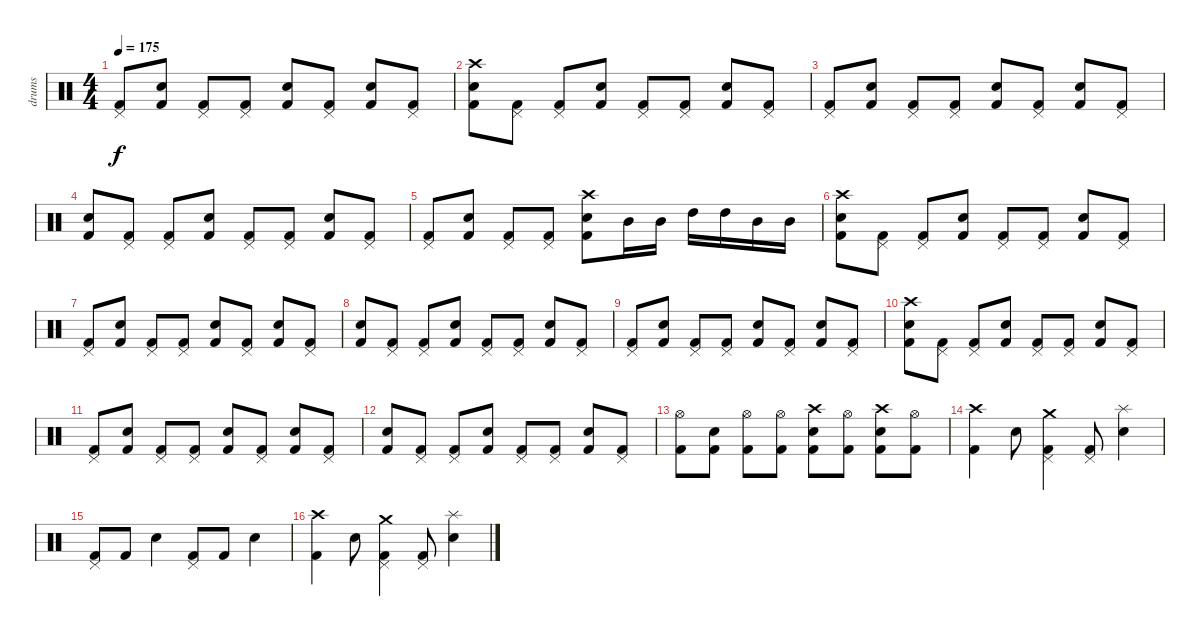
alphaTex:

\track ("drums" "drums") {instrument percussion}
\staff {score}
\articulation defaults
\ts (4 4)
\tempo 175
\clef neutral
\ks c
("Pedal Hi-Hat (hit)" "Kick (hit) 2").8{dy f} ("Electric Snare (hit)" "Kick (hit) 2").8 ("Pedal Hi-Hat (hit)" "Kick (hit) 2").8 ("Pedal Hi-Hat (hit)" "Kick (hit) 2").8 ("Electric Snare (hit)" "Kick (hit) 2").8 ("Pedal Hi-Hat (hit)" "Kick (hit) 2").8 ("Electric Snare (hit)" "Kick (hit) 2").8 ("Pedal Hi-Hat (hit)" "Kick (hit) 2").8 |
("Crash high (hit)" "Electric Snare (hit)" "Kick (hit) 2").8 ("Pedal Hi-Hat (hit)" "Kick (hit) 2").8 ("Pedal Hi-Hat (hit)" "Kick (hit) 2").8 ("Electric Snare (hit)" "Kick (hit) 2").8 ("Pedal Hi-Hat (hit)" "Kick (hit) 2").8 ("Pedal Hi-Hat (hit)" "Kick (hit) 2").8 ("Electric Snare (hit)" "Kick (hit) 2").8 ("Pedal Hi-Hat (hit)" "Kick (hit) 2").8 |
("Pedal Hi-Hat (hit)" "Kick (hit) 2").8 ("Electric Snare (hit)" "Kick (hit) 2").8 ("Pedal Hi-Hat (hit)" "Kick (hit) 2").8 ("Pedal Hi-Hat (hit)" "Kick (hit) 2").8 ("Electric Snare (hit)" "Kick (hit) 2").8 ("Pedal Hi-Hat (hit)" "Kick (hit) 2").8 ("Electric Snare (hit)" "Kick (hit) 2").8 ("Pedal Hi-Hat (hit)" "Kick (hit) 2").8 |
("Electric Snare (hit)" "Kick (hit) 2").8 ("Pedal Hi-Hat (hit)" "Kick (hit) 2").8 ("Pedal Hi-Hat (hit)" "Kick (hit) 2").8 ("Electric Snare (hit)" "Kick (hit) 2").8 ("Pedal Hi-Hat (hit)" "Kick (hit) 2").8 ("Pedal Hi-Hat (hit)" "Kick (hit) 2").8 ("Electric Snare (hit)" "Kick (hit) 2").8 ("Pedal Hi-Hat (hit)" "Kick (hit) 2").8 |
("Pedal Hi-Hat (hit)" "Kick (hit) 2").8 ("Electric Snare (hit)" "Kick (hit) 2").8 ("Pedal Hi-Hat (hit)" "Kick (hit) 2").8 ("Pedal Hi-Hat (hit)" "Kick (hit) 2").8 ("Crash high (hit)" "Electric Snare (hit)" "Kick (hit) 2").8 "Mid Tom (hit)".16 "Mid Tom (hit)".16 "High Tom (hit)".16 "High Tom (hit)".16 "Mid Tom (hit)".16 "Mid Tom (hit)".16 |
("Crash high (hit)" "Electric Snare (hit)" "Kick (hit) 2").8 ("Pedal Hi-Hat (hit)" "Kick (hit) 2").8 ("Pedal Hi-Hat (hit)" "Kick (hit) 2").8 ("Electric Snare (hit)" "Kick (hit) 2").8 ("Pedal Hi-Hat (hit)" "Kick (hit) 2").8 ("Pedal Hi-Hat (hit)" "Kick (hit) 2").8 ("Electric Snare (hit)" "Kick (hit) 2").8 ("Pedal Hi-Hat (hit)" "Kick (hit) 2").8 |
("Pedal Hi-Hat (hit)" "Kick (hit) 2").8 ("Electric Snare (hit)" "Kick (hit) 2").8 ("Pedal Hi-Hat (hit)" "Kick (hit) 2").8 ("Pedal Hi-Hat (hit)" "Kick (hit) 2").8 ("Electric Snare (hit)" "Kick (hit) 2").8 ("Pedal Hi-Hat (hit)" "Kick (hit) 2").8 ("Electric Snare (hit)" "Kick (hit) 2").8 ("Pedal Hi-Hat (hit)" "Kick (hit) 2").8 |
("Electric Snare (hit)" "Kick (hit) 2").8 ("Pedal Hi-Hat (hit)" "Kick (hit) 2").8 ("Pedal Hi-Hat (hit)" "Kick (hit) 2").8 ("Electric Snare (hit)" "Kick (hit) 2").8 ("Pedal Hi-Hat (hit)" "Kick (hit) 2").8 ("Pedal Hi-Hat (hit)" "Kick (hit) 2").8 ("Electric Snare (hit)" "Kick (hit) 2").8 ("Pedal Hi-Hat (hit)" "Kick (hit) 2").8 |
("Pedal Hi-Hat (hit)" "Kick (hit) 2").8 ("Electric Snare (hit)" "Kick (hit) 2").8 ("Pedal Hi-Hat (hit)" "Kick (hit) 2").8 ("Pedal Hi-Hat (hit)" "Kick (hit) 2").8 ("Electric Snare (hit)" "Kick (hit) 2").8 ("Pedal Hi-Hat (hit)" "Kick (hit) 2").8 ("Electric Snare (hit)" "Kick (hit) 2").8 ("Pedal Hi-Hat (hit)" "Kick (hit) 2").8 |
("Crash high (hit)" "Electric Snare (hit)" "Kick (hit) 2").8 ("Pedal Hi-Hat (hit)" "Kick (hit) 2").8 ("Pedal Hi-Hat (hit)" "Kick (hit) 2").8 ("Electric Snare (hit)" "Kick (hit) 2").8 ("Pedal Hi-Hat (hit)" "Kick (hit) 2").8 ("Pedal Hi-Hat (hit)" "Kick (hit) 2").8 ("Electric Snare (hit)" "Kick (hit) 2").8 ("Pedal Hi-Hat (hit)" "Kick (hit) 2").8 |
("Pedal Hi-Hat (hit)" "Kick (hit) 2").8 ("Electric Snare (hit)" "Kick (hit) 2").8 ("Pedal Hi-Hat (hit)" "Kick (hit) 2").8 ("Pedal Hi-Hat (hit)" "Kick (hit) 2").8 ("Electric Snare (hit)" "Kick (hit) 2").8 ("Pedal Hi-Hat (hit)" "Kick (hit) 2").8 ("Electric Snare (hit)" "Kick (hit) 2").8 ("Pedal Hi-Hat (hit)" "Kick (hit) 2").8 |
("Electric Snare (hit)" "Kick (hit) 2").8 ("Pedal Hi-Hat (hit)" "Kick (hit) 2").8 ("Pedal Hi-Hat (hit)" "Kick (hit) 2").8 ("Electric Snare (hit)" "Kick (hit) 2").8 ("Pedal Hi-Hat (hit)" "Kick (hit) 2").8 ("Pedal Hi-Hat (hit)" "Kick (hit) 2").8 ("Electric Snare (hit)" "Kick (hit) 2").8 ("Pedal Hi-Hat (hit)" "Kick (hit) 2").8 |
("Hi-Hat (open)" "Kick (hit) 2").8 ("Electric Snare (hit)" "Kick (hit) 2").8 ("Hi-Hat (open)" "Kick (hit) 2").8 ("Hi-Hat (open)" "Kick (hit) 2").8 ("Crash high (hit)" "Electric Snare (hit)" "Kick (hit) 2").8 ("Hi-Hat (open)" "Kick (hit) 2").8 ("Crash high (hit)" "Electric Snare (hit)" "Kick (hit) 2").8 ("Hi-Hat (open)" "Kick (hit) 2").8 |
("Crash high (hit)" "Kick (hit) 2").4 "Electric Snare (hit)".8 ("Crash medium (hit)" "Pedal Hi-Hat (hit)" "Kick (hit) 2").4 ("Pedal Hi-Hat (hit)" "Kick (hit) 2").8 ("Splash (hit)" "Electric Snare (hit)").4 |
("Pedal Hi-Hat (hit)" "Kick (hit) 2").8 "Kick (hit) 2".8 "Electric Snare (hit)".4 ("Pedal Hi-Hat (hit)" "Kick (hit) 2").8 "Kick (hit) 2".8 "Electric Snare (hit)".4 |
("Crash high (hit)" "Kick (hit) 2").4 "Electric Snare (hit)".8 ("Crash medium (hit)" "Pedal Hi-Hat (hit)" "Kick (hit) 2").4 ("Pedal Hi-Hat (hit)" "Kick (hit) 2").8 ("Splash (hit)" "Electric Snare (hit)").4
